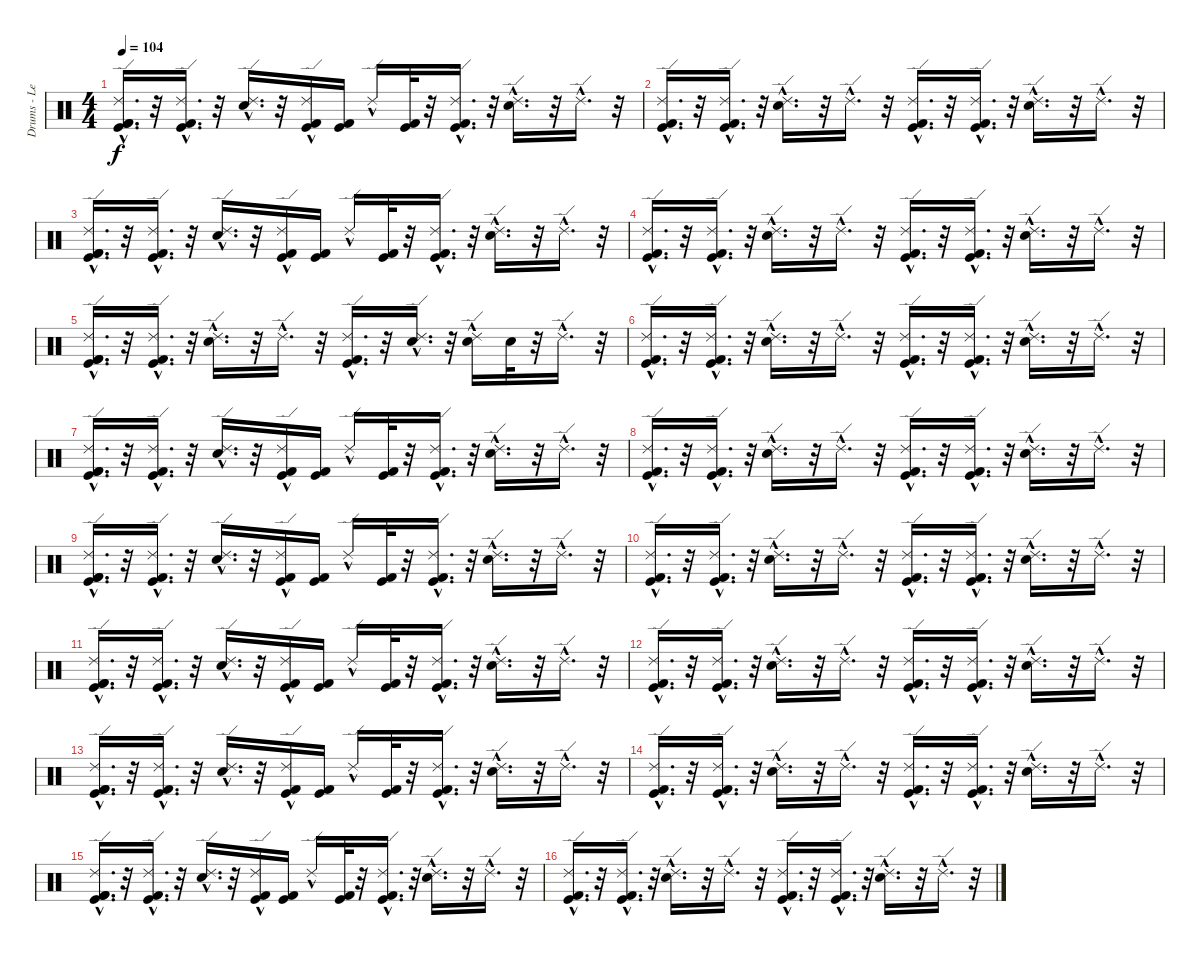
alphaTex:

\track ("Drums - Les Claypool" "Drums - Le") {instrument percussion}
\staff {score}
\articulation defaults
\ts (4 4)
\tempo 104
\clef neutral
\ks c
("Kick (hit) 2"{hac} "Ride (edge) 2"{hac} "Kick (hit) 2"{hac} "Kick (hit)"{hac}).16{d dy f} r.32 ("Ride (edge) 2"{hac} "Kick (hit) 2"{hac} "Kick (hit)"{hac}).16{d} r.32 ("Ride (edge) 2"{hac} "Snare (hit) 2"{hac}).16{d} r.32 ("Kick (hit) 2" "Kick (hit)" "Ride (edge) 2"{hac}).16 ("Kick (hit) 2" "Kick (hit)").16 "Ride (edge) 2"{hac}.16 ("Kick (hit) 2" "Kick (hit)").32 r.32 ("Kick (hit) 2"{hac} "Kick (hit)" "Ride (edge) 2"{hac}).16{d} r.32 ("Ride (edge) 2"{hac} "Snare (hit) 2"{hac}).16{d} r.32 "Ride (edge) 2"{hac}.16{d} r.32 |
("Ride (edge) 2"{hac} "Kick (hit) 2"{hac} "Kick (hit)"{hac}).16{d} r.32 ("Kick (hit) 2"{hac} "Ride (edge) 2"{hac} "Kick (hit)"{hac}).16{d} r.32 ("Ride (edge) 2"{hac} "Snare (hit) 2"{hac}).16{d} r.32 "Ride (edge) 2"{hac}.16{d} r.32 ("Kick (hit) 2"{hac} "Ride (edge) 2"{hac} "Kick (hit)"{hac}).16{d} r.32 ("Kick (hit) 2"{hac} "Kick (hit)"{hac} "Ride (edge) 2"{hac}).16{d} r.32 ("Ride (edge) 2"{hac} "Snare (hit) 2"{hac}).16{d} r.32 "Ride (edge) 2"{hac}.16{d} r.32 |
("Kick (hit) 2"{hac} "Ride (edge) 2"{hac} "Kick (hit) 2"{hac} "Kick (hit)"{hac}).16{d} r.32 ("Ride (edge) 2"{hac} "Kick (hit) 2"{hac} "Kick (hit)"{hac}).16{d} r.32 ("Ride (edge) 2"{hac} "Snare (hit) 2"{hac}).16{d} r.32 ("Kick (hit) 2" "Kick (hit)" "Ride (edge) 2"{hac}).16 ("Kick (hit) 2" "Kick (hit)").16 "Ride (edge) 2"{hac}.16 ("Kick (hit) 2" "Kick (hit)").32 r.32 ("Kick (hit) 2"{hac} "Kick (hit)" "Ride (edge) 2"{hac}).16{d} r.32 ("Ride (edge) 2"{hac} "Snare (hit) 2"{hac}).16{d} r.32 "Ride (edge) 2"{hac}.16{d} r.32 |
("Ride (edge) 2"{hac} "Kick (hit) 2"{hac} "Kick (hit)"{hac}).16{d} r.32 ("Kick (hit) 2"{hac} "Ride (edge) 2"{hac} "Kick (hit)"{hac}).16{d} r.32 ("Ride (edge) 2"{hac} "Snare (hit) 2"{hac}).16{d} r.32 "Ride (edge) 2"{hac}.16{d} r.32 ("Kick (hit) 2"{hac} "Ride (edge) 2"{hac} "Kick (hit)"{hac}).16{d} r.32 ("Kick (hit) 2"{hac} "Kick (hit)"{hac} "Ride (edge) 2"{hac}).16{d} r.32 ("Ride (edge) 2"{hac} "Snare (hit) 2"{hac}).16{d} r.32 "Ride (edge) 2"{hac}.16{d} r.32 |
("Kick (hit) 2"{hac} "Ride (edge) 2"{hac} "Kick (hit) 2"{hac} "Kick (hit)"{hac}).16{d} r.32 ("Ride (edge) 2"{hac} "Kick (hit) 2"{hac} "Kick (hit)"{hac}).16{d} r.32 ("Ride (edge) 2"{hac} "Snare (hit) 2"{hac}).16{d} r.32 "Ride (edge) 2"{hac}.16{d} r.32 ("Kick (hit) 2"{hac} "Kick (hit)"{hac} "Ride (edge) 2"{hac}).16{d} r.32 ("Snare (hit) 2"{hac} "Ride (edge) 2"{hac}).16{d} r.32 ("Snare (hit) 2" "Ride (edge) 2"{hac}).16 "Snare (hit) 2".32 r.32 "Ride (edge) 2"{hac}.16{d} r.32 |
("Ride (edge) 2"{hac} "Kick (hit) 2"{hac} "Kick (hit)"{hac}).16{d} r.32 ("Kick (hit) 2"{hac} "Ride (edge) 2"{hac} "Kick (hit)"{hac}).16{d} r.32 ("Ride (edge) 2"{hac} "Snare (hit) 2"{hac}).16{d} r.32 "Ride (edge) 2"{hac}.16{d} r.32 ("Kick (hit) 2"{hac} "Ride (edge) 2"{hac} "Kick (hit)"{hac}).16{d} r.32 ("Kick (hit) 2"{hac} "Kick (hit)"{hac} "Ride (edge) 2"{hac}).16{d} r.32 ("Ride (edge) 2"{hac} "Snare (hit) 2"{hac}).16{d} r.32 "Ride (edge) 2"{hac}.16{d} r.32 |
("Kick (hit) 2"{hac} "Ride (edge) 2"{hac} "Kick (hit) 2"{hac} "Kick (hit)"{hac}).16{d} r.32 ("Ride (edge) 2"{hac} "Kick (hit) 2"{hac} "Kick (hit)"{hac}).16{d} r.32 ("Ride (edge) 2"{hac} "Snare (hit) 2"{hac}).16{d} r.32 ("Kick (hit) 2" "Kick (hit)" "Ride (edge) 2"{hac}).16 ("Kick (hit) 2" "Kick (hit)").16 "Ride (edge) 2"{hac}.16 ("Kick (hit) 2" "Kick (hit)").32 r.32 ("Kick (hit) 2"{hac} "Kick (hit)" "Ride (edge) 2"{hac}).16{d} r.32 ("Ride (edge) 2"{hac} "Snare (hit) 2"{hac}).16{d} r.32 "Ride (edge) 2"{hac}.16{d} r.32 |
("Ride (edge) 2"{hac} "Kick (hit) 2"{hac} "Kick (hit)"{hac}).16{d} r.32 ("Kick (hit) 2"{hac} "Ride (edge) 2"{hac} "Kick (hit)"{hac}).16{d} r.32 ("Ride (edge) 2"{hac} "Snare (hit) 2"{hac}).16{d} r.32 "Ride (edge) 2"{hac}.16{d} r.32 ("Kick (hit) 2"{hac} "Ride (edge) 2"{hac} "Kick (hit)"{hac}).16{d} r.32 ("Kick (hit) 2"{hac} "Kick (hit)"{hac} "Ride (edge) 2"{hac}).16{d} r.32 ("Ride (edge) 2"{hac} "Snare (hit) 2"{hac}).16{d} r.32 "Ride (edge) 2"{hac}.16{d} r.32 |
("Kick (hit) 2"{hac} "Ride (edge) 2"{hac} "Kick (hit) 2"{hac} "Kick (hit)"{hac}).16{d} r.32 ("Ride (edge) 2"{hac} "Kick (hit) 2"{hac} "Kick (hit)"{hac}).16{d} r.32 ("Ride (edge) 2"{hac} "Snare (hit) 2"{hac}).16{d} r.32 ("Kick (hit) 2" "Kick (hit)" "Ride (edge) 2"{hac}).16 ("Kick (hit) 2" "Kick (hit)").16 "Ride (edge) 2"{hac}.16 ("Kick (hit) 2" "Kick (hit)").32 r.32 ("Kick (hit) 2"{hac} "Kick (hit)" "Ride (edge) 2"{hac}).16{d} r.32 ("Ride (edge) 2"{hac} "Snare (hit) 2"{hac}).16{d} r.32 "Ride (edge) 2"{hac}.16{d} r.32 |
("Ride (edge) 2"{hac} "Kick (hit) 2"{hac} "Kick (hit)"{hac}).16{d} r.32 ("Kick (hit) 2"{hac} "Ride (edge) 2"{hac} "Kick (hit)"{hac}).16{d} r.32 ("Ride (edge) 2"{hac} "Snare (hit) 2"{hac}).16{d} r.32 "Ride (edge) 2"{hac}.16{d} r.32 ("Kick (hit) 2"{hac} "Ride (edge) 2"{hac} "Kick (hit)"{hac}).16{d} r.32 ("Kick (hit) 2"{hac} "Kick (hit)"{hac} "Ride (edge) 2"{hac}).16{d} r.32 ("Ride (edge) 2"{hac} "Snare (hit) 2"{hac}).16{d} r.32 "Ride (edge) 2"{hac}.16{d} r.32 |
("Kick (hit) 2"{hac} "Ride (edge) 2"{hac} "Kick (hit) 2"{hac} "Kick (hit)"{hac}).16{d} r.32 ("Ride (edge) 2"{hac} "Kick (hit) 2"{hac} "Kick (hit)"{hac}).16{d} r.32 ("Ride (edge) 2"{hac} "Snare (hit) 2"{hac}).16{d} r.32 ("Kick (hit) 2" "Kick (hit)" "Ride (edge) 2"{hac}).16 ("Kick (hit) 2" "Kick (hit)").16 "Ride (edge) 2"{hac}.16 ("Kick (hit) 2" "Kick (hit)").32 r.32 ("Kick (hit) 2"{hac} "Kick (hit)" "Ride (edge) 2"{hac}).16{d} r.32 ("Ride (edge) 2"{hac} "Snare (hit) 2"{hac}).16{d} r.32 "Ride (edge) 2"{hac}.16{d} r.32 |
("Ride (edge) 2"{hac} "Kick (hit) 2"{hac} "Kick (hit)"{hac}).16{d} r.32 ("Kick (hit) 2"{hac} "Ride (edge) 2"{hac} "Kick (hit)"{hac}).16{d} r.32 ("Ride (edge) 2"{hac} "Snare (hit) 2"{hac}).16{d} r.32 "Ride (edge) 2"{hac}.16{d} r.32 ("Kick (hit) 2"{hac} "Ride (edge) 2"{hac} "Kick (hit)"{hac}).16{d} r.32 ("Kick (hit) 2"{hac} "Kick (hit)"{hac} "Ride (edge) 2"{hac}).16{d} r.32 ("Ride (edge) 2"{hac} "Snare (hit) 2"{hac}).16{d} r.32 "Ride (edge) 2"{hac}.16{d} r.32 |
("Kick (hit) 2"{hac} "Ride (edge) 2"{hac} "Kick (hit) 2"{hac} "Kick (hit)"{hac}).16{d} r.32 ("Ride (edge) 2"{hac} "Kick (hit) 2"{hac} "Kick (hit)"{hac}).16{d} r.32 ("Ride (edge) 2"{hac} "Snare (hit) 2"{hac}).16{d} r.32 ("Kick (hit) 2" "Kick (hit)" "Ride (edge) 2"{hac}).16 ("Kick (hit) 2" "Kick (hit)").16 "Ride (edge) 2"{hac}.16 ("Kick (hit) 2" "Kick (hit)").32 r.32 ("Kick (hit) 2"{hac} "Kick (hit)" "Ride (edge) 2"{hac}).16{d} r.32 ("Ride (edge) 2"{hac} "Snare (hit) 2"{hac}).16{d} r.32 "Ride (edge) 2"{hac}.16{d} r.32 |
("Ride (edge) 2"{hac} "Kick (hit) 2"{hac} "Kick (hit)"{hac}).16{d} r.32 ("Kick (hit) 2"{hac} "Ride (edge) 2"{hac} "Kick (hit)"{hac}).16{d} r.32 ("Ride (edge) 2"{hac} "Snare (hit) 2"{hac}).16{d} r.32 "Ride (edge) 2"{hac}.16{d} r.32 ("Kick (hit) 2"{hac} "Ride (edge) 2"{hac} "Kick (hit)"{hac}).16{d} r.32 ("Kick (hit) 2"{hac} "Kick (hit)"{hac} "Ride (edge) 2"{hac}).16{d} r.32 ("Ride (edge) 2"{hac} "Snare (hit) 2"{hac}).16{d} r.32 "Ride (edge) 2"{hac}.16{d} r.32 |
("Kick (hit) 2"{hac} "Ride (edge) 2"{hac} "Kick (hit) 2"{hac} "Kick (hit)"{hac}).16{d} r.32 ("Ride (edge) 2"{hac} "Kick (hit) 2"{hac} "Kick (hit)"{hac}).16{d} r.32 ("Ride (edge) 2"{hac} "Snare (hit) 2"{hac}).16{d} r.32 ("Kick (hit) 2" "Kick (hit)" "Ride (edge) 2"{hac}).16 ("Kick (hit) 2" "Kick (hit)").16 "Ride (edge) 2"{hac}.16 ("Kick (hit) 2" "Kick (hit)").32 r.32 ("Kick (hit) 2"{hac} "Kick (hit)" "Ride (edge) 2"{hac}).16{d} r.32 ("Ride (edge) 2"{hac} "Snare (hit) 2"{hac}).16{d} r.32 "Ride (edge) 2"{hac}.16{d} r.32 |
("Ride (edge) 2"{hac} "Kick (hit) 2"{hac} "Kick (hit)"{hac}).16{d} r.32 ("Kick (hit) 2"{hac} "Ride (edge) 2"{hac} "Kick (hit)"{hac}).16{d} r.32 ("Ride (edge) 2"{hac} "Snare (hit) 2"{hac}).16{d} r.32 "Ride (edge) 2"{hac}.16{d} r.32 ("Kick (hit) 2"{hac} "Ride (edge) 2"{hac} "Kick (hit)"{hac}).16{d} r.32 ("Kick (hit) 2"{hac} "Kick (hit)"{hac} "Ride (edge) 2"{hac}).16{d} r.32 ("Ride (edge) 2"{hac} "Snare (hit) 2"{hac}).16{d} r.32 "Ride (edge) 2"{hac}.16{d} r.32
